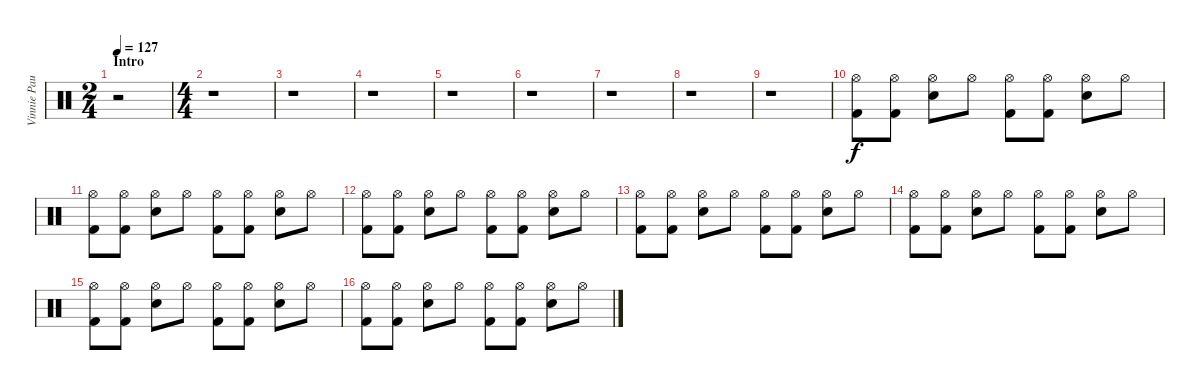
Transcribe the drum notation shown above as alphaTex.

\track ("Vinnie Paul" "Vinnie Pau") {instrument percussion}
\staff {score}
\articulation defaults
\ts (2 4)
\section ("" "Intro")
\tempo 127
\clef neutral
\ks c
r.2{dy f} |
\ts (4 4)
r.1 |
r.1 |
r.1 |
r.1 |
r.1 |
r.1 |
r.1 |
r.1 |
("Kick (hit) 2" "Hi-Hat (open)").8 ("Kick (hit) 2" "Hi-Hat (open)").8 ("Snare (hit) 2" "Hi-Hat (open)").8 "Hi-Hat (open)".8 ("Kick (hit) 2" "Hi-Hat (open)").8 ("Kick (hit) 2" "Hi-Hat (open)").8 ("Snare (hit) 2" "Hi-Hat (open)").8 "Hi-Hat (open)".8 |
("Kick (hit) 2" "Hi-Hat (open)").8 ("Kick (hit) 2" "Hi-Hat (open)").8 ("Snare (hit) 2" "Hi-Hat (open)").8 "Hi-Hat (open)".8 ("Kick (hit) 2" "Hi-Hat (open)").8 ("Kick (hit) 2" "Hi-Hat (open)").8 ("Snare (hit) 2" "Hi-Hat (open)").8 "Hi-Hat (open)".8 |
("Kick (hit) 2" "Hi-Hat (open)").8 ("Kick (hit) 2" "Hi-Hat (open)").8 ("Snare (hit) 2" "Hi-Hat (open)").8 "Hi-Hat (open)".8 ("Kick (hit) 2" "Hi-Hat (open)").8 ("Kick (hit) 2" "Hi-Hat (open)").8 ("Snare (hit) 2" "Hi-Hat (open)").8 "Hi-Hat (open)".8 |
("Kick (hit) 2" "Hi-Hat (open)").8 ("Kick (hit) 2" "Hi-Hat (open)").8 ("Snare (hit) 2" "Hi-Hat (open)").8 "Hi-Hat (open)".8 ("Kick (hit) 2" "Hi-Hat (open)").8 ("Kick (hit) 2" "Hi-Hat (open)").8 ("Snare (hit) 2" "Hi-Hat (open)").8 "Hi-Hat (open)".8 |
("Kick (hit) 2" "Hi-Hat (open)").8 ("Kick (hit) 2" "Hi-Hat (open)").8 ("Snare (hit) 2" "Hi-Hat (open)").8 "Hi-Hat (open)".8 ("Kick (hit) 2" "Hi-Hat (open)").8 ("Kick (hit) 2" "Hi-Hat (open)").8 ("Snare (hit) 2" "Hi-Hat (open)").8 "Hi-Hat (open)".8 |
("Kick (hit) 2" "Hi-Hat (open)").8 ("Kick (hit) 2" "Hi-Hat (open)").8 ("Snare (hit) 2" "Hi-Hat (open)").8 "Hi-Hat (open)".8 ("Kick (hit) 2" "Hi-Hat (open)").8 ("Kick (hit) 2" "Hi-Hat (open)").8 ("Snare (hit) 2" "Hi-Hat (open)").8 "Hi-Hat (open)".8 |
("Kick (hit) 2" "Hi-Hat (open)").8 ("Kick (hit) 2" "Hi-Hat (open)").8 ("Snare (hit) 2" "Hi-Hat (open)").8 "Hi-Hat (open)".8 ("Kick (hit) 2" "Hi-Hat (open)").8 ("Kick (hit) 2" "Hi-Hat (open)").8 ("Snare (hit) 2" "Hi-Hat (open)").8 "Hi-Hat (open)".8
